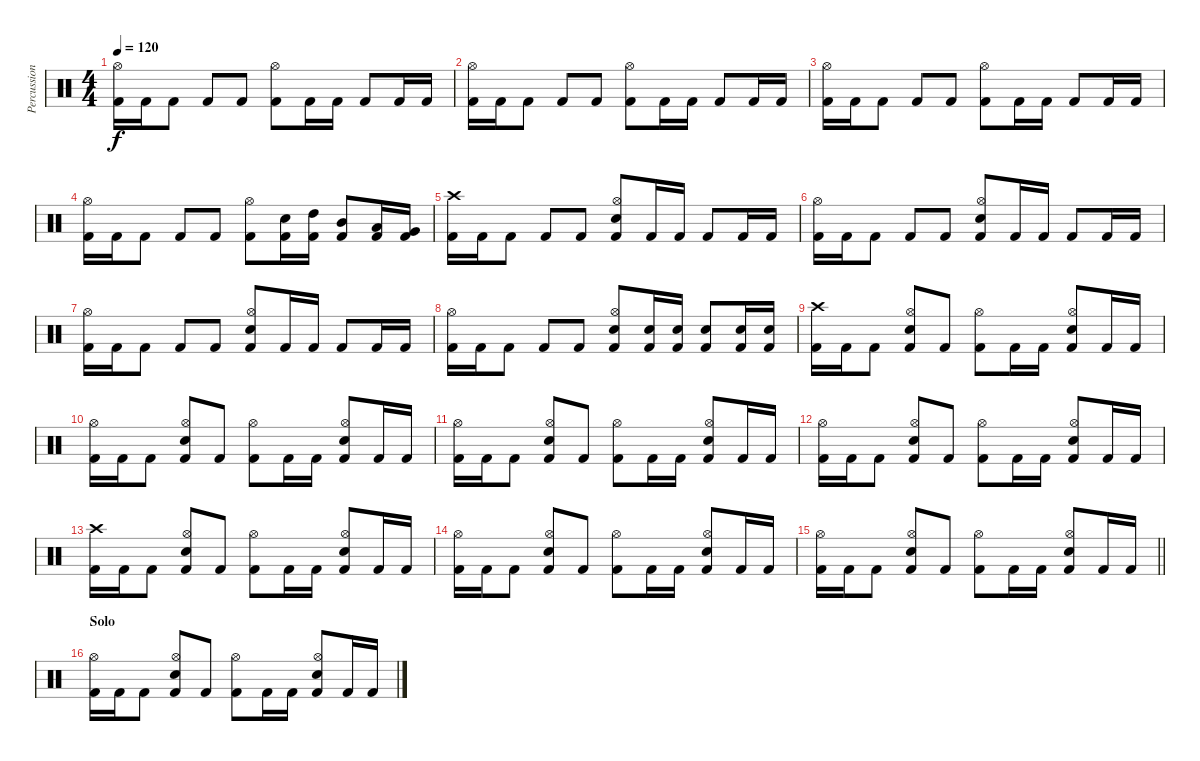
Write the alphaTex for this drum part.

\track ("Percussion" "Percussion") {instrument percussion}
\staff {score}
\articulation defaults
\ts (4 4)
\tempo 120
\clef neutral
\ks c
("Kick (hit) 2" "Hi-Hat (open)").16{dy f} "Kick (hit) 2".16 "Kick (hit) 2".8 "Kick (hit) 2".8 "Kick (hit) 2".8 ("Kick (hit) 2" "Hi-Hat (open)").8 "Kick (hit) 2".16 "Kick (hit) 2".16 "Kick (hit) 2".8 "Kick (hit) 2".16 "Kick (hit) 2".16 |
("Kick (hit) 2" "Hi-Hat (open)").16 "Kick (hit) 2".16 "Kick (hit) 2".8 "Kick (hit) 2".8 "Kick (hit) 2".8 ("Kick (hit) 2" "Hi-Hat (open)").8 "Kick (hit) 2".16 "Kick (hit) 2".16 "Kick (hit) 2".8 "Kick (hit) 2".16 "Kick (hit) 2".16 |
("Kick (hit) 2" "Hi-Hat (open)").16 "Kick (hit) 2".16 "Kick (hit) 2".8 "Kick (hit) 2".8 "Kick (hit) 2".8 ("Kick (hit) 2" "Hi-Hat (open)").8 "Kick (hit) 2".16 "Kick (hit) 2".16 "Kick (hit) 2".8 "Kick (hit) 2".16 "Kick (hit) 2".16 |
("Kick (hit) 2" "Hi-Hat (open)").16 "Kick (hit) 2".16 "Kick (hit) 2".8 "Kick (hit) 2".8 "Kick (hit) 2".8 ("Kick (hit) 2" "Hi-Hat (open)").8 ("Kick (hit) 2" "Electric Snare (hit)").16 ("Kick (hit) 2" "High Tom (hit)").16 ("Kick (hit) 2" "Mid Tom (hit)").8 ("Kick (hit) 2" "Low Tom (hit)").16 ("Kick (hit) 2" "Very Low Tom (hit)").16 |
("Kick (hit) 2" "Crash high (hit)").16 "Kick (hit) 2".16 "Kick (hit) 2".8 "Kick (hit) 2".8 "Kick (hit) 2".8 ("Kick (hit) 2" "Hi-Hat (open)" "Electric Snare (hit)").8 "Kick (hit) 2".16 "Kick (hit) 2".16 "Kick (hit) 2".8 "Kick (hit) 2".16 "Kick (hit) 2".16 |
("Kick (hit) 2" "Hi-Hat (open)").16 "Kick (hit) 2".16 "Kick (hit) 2".8 "Kick (hit) 2".8 "Kick (hit) 2".8 ("Kick (hit) 2" "Hi-Hat (open)" "Electric Snare (hit)").8 "Kick (hit) 2".16 "Kick (hit) 2".16 "Kick (hit) 2".8 "Kick (hit) 2".16 "Kick (hit) 2".16 |
("Kick (hit) 2" "Hi-Hat (open)").16 "Kick (hit) 2".16 "Kick (hit) 2".8 "Kick (hit) 2".8 "Kick (hit) 2".8 ("Kick (hit) 2" "Hi-Hat (open)" "Electric Snare (hit)").8 "Kick (hit) 2".16 "Kick (hit) 2".16 "Kick (hit) 2".8 "Kick (hit) 2".16 "Kick (hit) 2".16 |
("Kick (hit) 2" "Hi-Hat (open)").16 "Kick (hit) 2".16 "Kick (hit) 2".8 "Kick (hit) 2".8 "Kick (hit) 2".8 ("Kick (hit) 2" "Hi-Hat (open)" "Electric Snare (hit)").8 ("Kick (hit) 2" "Electric Snare (hit)").16 ("Kick (hit) 2" "Electric Snare (hit)").16 ("Kick (hit) 2" "Electric Snare (hit)").8 ("Kick (hit) 2" "Electric Snare (hit)").16 ("Kick (hit) 2" "Electric Snare (hit)").16 |
("Kick (hit) 2" "Crash high (hit)").16 "Kick (hit) 2".16 "Kick (hit) 2".8 ("Kick (hit) 2" "Hi-Hat (open)" "Electric Snare (hit)").8 "Kick (hit) 2".8 ("Kick (hit) 2" "Hi-Hat (open)").8 "Kick (hit) 2".16 "Kick (hit) 2".16 ("Kick (hit) 2" "Hi-Hat (open)" "Electric Snare (hit)").8 "Kick (hit) 2".16 "Kick (hit) 2".16 |
("Kick (hit) 2" "Hi-Hat (open)").16 "Kick (hit) 2".16 "Kick (hit) 2".8 ("Kick (hit) 2" "Hi-Hat (open)" "Electric Snare (hit)").8 "Kick (hit) 2".8 ("Kick (hit) 2" "Hi-Hat (open)").8 "Kick (hit) 2".16 "Kick (hit) 2".16 ("Kick (hit) 2" "Hi-Hat (open)" "Electric Snare (hit)").8 "Kick (hit) 2".16 "Kick (hit) 2".16 |
("Kick (hit) 2" "Hi-Hat (open)").16 "Kick (hit) 2".16 "Kick (hit) 2".8 ("Kick (hit) 2" "Hi-Hat (open)" "Electric Snare (hit)").8 "Kick (hit) 2".8 ("Kick (hit) 2" "Hi-Hat (open)").8 "Kick (hit) 2".16 "Kick (hit) 2".16 ("Kick (hit) 2" "Hi-Hat (open)" "Electric Snare (hit)").8 "Kick (hit) 2".16 "Kick (hit) 2".16 |
("Kick (hit) 2" "Hi-Hat (open)").16 "Kick (hit) 2".16 "Kick (hit) 2".8 ("Kick (hit) 2" "Hi-Hat (open)" "Electric Snare (hit)").8 "Kick (hit) 2".8 ("Kick (hit) 2" "Hi-Hat (open)").8 "Kick (hit) 2".16 "Kick (hit) 2".16 ("Kick (hit) 2" "Hi-Hat (open)" "Electric Snare (hit)").8 "Kick (hit) 2".16 "Kick (hit) 2".16 |
("Kick (hit) 2" "Crash high (hit)").16 "Kick (hit) 2".16 "Kick (hit) 2".8 ("Kick (hit) 2" "Hi-Hat (open)" "Electric Snare (hit)").8 "Kick (hit) 2".8 ("Kick (hit) 2" "Hi-Hat (open)").8 "Kick (hit) 2".16 "Kick (hit) 2".16 ("Kick (hit) 2" "Hi-Hat (open)" "Electric Snare (hit)").8 "Kick (hit) 2".16 "Kick (hit) 2".16 |
("Kick (hit) 2" "Hi-Hat (open)").16 "Kick (hit) 2".16 "Kick (hit) 2".8 ("Kick (hit) 2" "Hi-Hat (open)" "Electric Snare (hit)").8 "Kick (hit) 2".8 ("Kick (hit) 2" "Hi-Hat (open)").8 "Kick (hit) 2".16 "Kick (hit) 2".16 ("Kick (hit) 2" "Hi-Hat (open)" "Electric Snare (hit)").8 "Kick (hit) 2".16 "Kick (hit) 2".16 |
\barLineRight lightlight
("Kick (hit) 2" "Hi-Hat (open)").16 "Kick (hit) 2".16 "Kick (hit) 2".8 ("Kick (hit) 2" "Hi-Hat (open)" "Electric Snare (hit)").8 "Kick (hit) 2".8 ("Kick (hit) 2" "Hi-Hat (open)").8 "Kick (hit) 2".16 "Kick (hit) 2".16 ("Kick (hit) 2" "Hi-Hat (open)" "Electric Snare (hit)").8 "Kick (hit) 2".16 "Kick (hit) 2".16 |
\section ("" "Solo")
("Kick (hit) 2" "Hi-Hat (open)").16 "Kick (hit) 2".16 "Kick (hit) 2".8 ("Kick (hit) 2" "Hi-Hat (open)" "Electric Snare (hit)").8 "Kick (hit) 2".8 ("Kick (hit) 2" "Hi-Hat (open)").8 "Kick (hit) 2".16 "Kick (hit) 2".16 ("Kick (hit) 2" "Hi-Hat (open)" "Electric Snare (hit)").8 "Kick (hit) 2".16 "Kick (hit) 2".16
